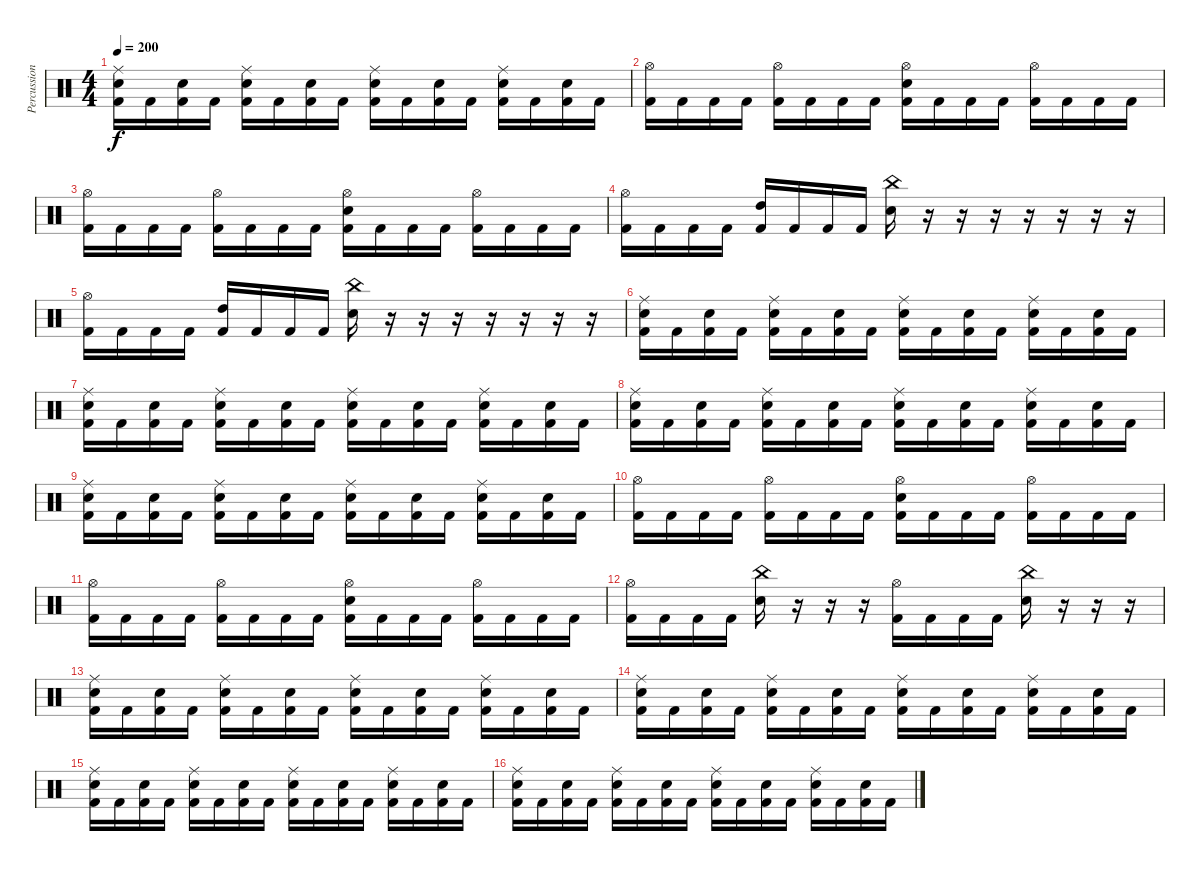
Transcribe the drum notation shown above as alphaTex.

\track ("Percussions" "Percussion") {instrument percussion}
\staff {score}
\articulation defaults
\ts (4 4)
\tempo 200
\clef neutral
\ks c
("Ride (middle)" "Snare (hit) 2" "Kick (hit) 2").16{dy f} "Kick (hit) 2".16 ("Snare (hit) 2" "Kick (hit) 2").16 "Kick (hit) 2".16 ("Ride (middle)" "Snare (hit) 2" "Kick (hit) 2").16 "Kick (hit) 2".16 ("Snare (hit) 2" "Kick (hit) 2").16 "Kick (hit) 2".16 ("Ride (middle)" "Snare (hit) 2" "Kick (hit) 2").16 "Kick (hit) 2".16 ("Snare (hit) 2" "Kick (hit) 2").16 "Kick (hit) 2".16 ("Ride (middle)" "Snare (hit) 2" "Kick (hit) 2").16 "Kick (hit) 2".16 ("Snare (hit) 2" "Kick (hit) 2").16 "Kick (hit) 2".16 |
("Hi-Hat (open)" "Kick (hit) 2").16 "Kick (hit) 2".16 "Kick (hit) 2".16 "Kick (hit) 2".16 ("Hi-Hat (open)" "Kick (hit) 2").16 "Kick (hit) 2".16 "Kick (hit) 2".16 "Kick (hit) 2".16 ("Hi-Hat (open)" "Snare (hit) 2" "Kick (hit) 2").16 "Kick (hit) 2".16 "Kick (hit) 2".16 "Kick (hit) 2".16 ("Hi-Hat (open)" "Kick (hit) 2").16 "Kick (hit) 2".16 "Kick (hit) 2".16 "Kick (hit) 2".16 |
("Hi-Hat (open)" "Kick (hit) 2").16 "Kick (hit) 2".16 "Kick (hit) 2".16 "Kick (hit) 2".16 ("Hi-Hat (open)" "Kick (hit) 2").16 "Kick (hit) 2".16 "Kick (hit) 2".16 "Kick (hit) 2".16 ("Hi-Hat (open)" "Snare (hit) 2" "Kick (hit) 2").16 "Kick (hit) 2".16 "Kick (hit) 2".16 "Kick (hit) 2".16 ("Hi-Hat (open)" "Kick (hit) 2").16 "Kick (hit) 2".16 "Kick (hit) 2".16 "Kick (hit) 2".16 |
("Hi-Hat (open)" "Kick (hit) 2").16 "Kick (hit) 2".16 "Kick (hit) 2".16 "Kick (hit) 2".16 ("High Tom (hit)" "Kick (hit) 2").16 "Kick (hit) 2".16 "Kick (hit) 2".16 "Kick (hit) 2".16 ("China (hit)" "Snare (hit) 2").16 r.16 r.16 r.16 r.16 r.16 r.16 r.16 |
("Hi-Hat (open)" "Kick (hit) 2").16 "Kick (hit) 2".16 "Kick (hit) 2".16 "Kick (hit) 2".16 ("High Tom (hit)" "Kick (hit) 2").16 "Kick (hit) 2".16 "Kick (hit) 2".16 "Kick (hit) 2".16 ("China (hit)" "Snare (hit) 2").16 r.16 r.16 r.16 r.16 r.16 r.16 r.16 |
("Ride (middle)" "Snare (hit) 2" "Kick (hit) 2").16 "Kick (hit) 2".16 ("Snare (hit) 2" "Kick (hit) 2").16 "Kick (hit) 2".16 ("Ride (middle)" "Snare (hit) 2" "Kick (hit) 2").16 "Kick (hit) 2".16 ("Snare (hit) 2" "Kick (hit) 2").16 "Kick (hit) 2".16 ("Ride (middle)" "Snare (hit) 2" "Kick (hit) 2").16 "Kick (hit) 2".16 ("Snare (hit) 2" "Kick (hit) 2").16 "Kick (hit) 2".16 ("Ride (middle)" "Snare (hit) 2" "Kick (hit) 2").16 "Kick (hit) 2".16 ("Snare (hit) 2" "Kick (hit) 2").16 "Kick (hit) 2".16 |
("Ride (middle)" "Snare (hit) 2" "Kick (hit) 2").16 "Kick (hit) 2".16 ("Snare (hit) 2" "Kick (hit) 2").16 "Kick (hit) 2".16 ("Ride (middle)" "Snare (hit) 2" "Kick (hit) 2").16 "Kick (hit) 2".16 ("Snare (hit) 2" "Kick (hit) 2").16 "Kick (hit) 2".16 ("Ride (middle)" "Snare (hit) 2" "Kick (hit) 2").16 "Kick (hit) 2".16 ("Snare (hit) 2" "Kick (hit) 2").16 "Kick (hit) 2".16 ("Ride (middle)" "Snare (hit) 2" "Kick (hit) 2").16 "Kick (hit) 2".16 ("Snare (hit) 2" "Kick (hit) 2").16 "Kick (hit) 2".16 |
("Ride (middle)" "Snare (hit) 2" "Kick (hit) 2").16 "Kick (hit) 2".16 ("Snare (hit) 2" "Kick (hit) 2").16 "Kick (hit) 2".16 ("Ride (middle)" "Snare (hit) 2" "Kick (hit) 2").16 "Kick (hit) 2".16 ("Snare (hit) 2" "Kick (hit) 2").16 "Kick (hit) 2".16 ("Ride (middle)" "Snare (hit) 2" "Kick (hit) 2").16 "Kick (hit) 2".16 ("Snare (hit) 2" "Kick (hit) 2").16 "Kick (hit) 2".16 ("Ride (middle)" "Snare (hit) 2" "Kick (hit) 2").16 "Kick (hit) 2".16 ("Snare (hit) 2" "Kick (hit) 2").16 "Kick (hit) 2".16 |
("Ride (middle)" "Snare (hit) 2" "Kick (hit) 2").16 "Kick (hit) 2".16 ("Snare (hit) 2" "Kick (hit) 2").16 "Kick (hit) 2".16 ("Ride (middle)" "Snare (hit) 2" "Kick (hit) 2").16 "Kick (hit) 2".16 ("Snare (hit) 2" "Kick (hit) 2").16 "Kick (hit) 2".16 ("Ride (middle)" "Snare (hit) 2" "Kick (hit) 2").16 "Kick (hit) 2".16 ("Snare (hit) 2" "Kick (hit) 2").16 "Kick (hit) 2".16 ("Ride (middle)" "Snare (hit) 2" "Kick (hit) 2").16 "Kick (hit) 2".16 ("Snare (hit) 2" "Kick (hit) 2").16 "Kick (hit) 2".16 |
("Hi-Hat (open)" "Kick (hit) 2").16 "Kick (hit) 2".16 "Kick (hit) 2".16 "Kick (hit) 2".16 ("Hi-Hat (open)" "Kick (hit) 2").16 "Kick (hit) 2".16 "Kick (hit) 2".16 "Kick (hit) 2".16 ("Hi-Hat (open)" "Snare (hit) 2" "Kick (hit) 2").16 "Kick (hit) 2".16 "Kick (hit) 2".16 "Kick (hit) 2".16 ("Hi-Hat (open)" "Kick (hit) 2").16 "Kick (hit) 2".16 "Kick (hit) 2".16 "Kick (hit) 2".16 |
("Hi-Hat (open)" "Kick (hit) 2").16 "Kick (hit) 2".16 "Kick (hit) 2".16 "Kick (hit) 2".16 ("Hi-Hat (open)" "Kick (hit) 2").16 "Kick (hit) 2".16 "Kick (hit) 2".16 "Kick (hit) 2".16 ("Hi-Hat (open)" "Snare (hit) 2" "Kick (hit) 2").16 "Kick (hit) 2".16 "Kick (hit) 2".16 "Kick (hit) 2".16 ("Hi-Hat (open)" "Kick (hit) 2").16 "Kick (hit) 2".16 "Kick (hit) 2".16 "Kick (hit) 2".16 |
("Hi-Hat (open)" "Kick (hit) 2").16 "Kick (hit) 2".16 "Kick (hit) 2".16 "Kick (hit) 2".16 ("China (hit)" "Snare (hit) 2").16 r.16 r.16 r.16 ("Hi-Hat (open)" "Kick (hit) 2").16 "Kick (hit) 2".16 "Kick (hit) 2".16 "Kick (hit) 2".16 ("China (hit)" "Snare (hit) 2").16 r.16 r.16 r.16 |
("Ride (middle)" "Snare (hit) 2" "Kick (hit) 2").16 "Kick (hit) 2".16 ("Snare (hit) 2" "Kick (hit) 2").16 "Kick (hit) 2".16 ("Ride (middle)" "Snare (hit) 2" "Kick (hit) 2").16 "Kick (hit) 2".16 ("Snare (hit) 2" "Kick (hit) 2").16 "Kick (hit) 2".16 ("Ride (middle)" "Snare (hit) 2" "Kick (hit) 2").16 "Kick (hit) 2".16 ("Snare (hit) 2" "Kick (hit) 2").16 "Kick (hit) 2".16 ("Ride (middle)" "Snare (hit) 2" "Kick (hit) 2").16 "Kick (hit) 2".16 ("Snare (hit) 2" "Kick (hit) 2").16 "Kick (hit) 2".16 |
("Ride (middle)" "Snare (hit) 2" "Kick (hit) 2").16 "Kick (hit) 2".16 ("Snare (hit) 2" "Kick (hit) 2").16 "Kick (hit) 2".16 ("Ride (middle)" "Snare (hit) 2" "Kick (hit) 2").16 "Kick (hit) 2".16 ("Snare (hit) 2" "Kick (hit) 2").16 "Kick (hit) 2".16 ("Ride (middle)" "Snare (hit) 2" "Kick (hit) 2").16 "Kick (hit) 2".16 ("Snare (hit) 2" "Kick (hit) 2").16 "Kick (hit) 2".16 ("Ride (middle)" "Snare (hit) 2" "Kick (hit) 2").16 "Kick (hit) 2".16 ("Snare (hit) 2" "Kick (hit) 2").16 "Kick (hit) 2".16 |
("Ride (middle)" "Snare (hit) 2" "Kick (hit) 2").16 "Kick (hit) 2".16 ("Snare (hit) 2" "Kick (hit) 2").16 "Kick (hit) 2".16 ("Ride (middle)" "Snare (hit) 2" "Kick (hit) 2").16 "Kick (hit) 2".16 ("Snare (hit) 2" "Kick (hit) 2").16 "Kick (hit) 2".16 ("Ride (middle)" "Snare (hit) 2" "Kick (hit) 2").16 "Kick (hit) 2".16 ("Snare (hit) 2" "Kick (hit) 2").16 "Kick (hit) 2".16 ("Ride (middle)" "Snare (hit) 2" "Kick (hit) 2").16 "Kick (hit) 2".16 ("Snare (hit) 2" "Kick (hit) 2").16 "Kick (hit) 2".16 |
("Ride (middle)" "Snare (hit) 2" "Kick (hit) 2").16 "Kick (hit) 2".16 ("Snare (hit) 2" "Kick (hit) 2").16 "Kick (hit) 2".16 ("Ride (middle)" "Snare (hit) 2" "Kick (hit) 2").16 "Kick (hit) 2".16 ("Snare (hit) 2" "Kick (hit) 2").16 "Kick (hit) 2".16 ("Ride (middle)" "Snare (hit) 2" "Kick (hit) 2").16 "Kick (hit) 2".16 ("Snare (hit) 2" "Kick (hit) 2").16 "Kick (hit) 2".16 ("Ride (middle)" "Snare (hit) 2" "Kick (hit) 2").16 "Kick (hit) 2".16 ("Snare (hit) 2" "Kick (hit) 2").16 "Kick (hit) 2".16
